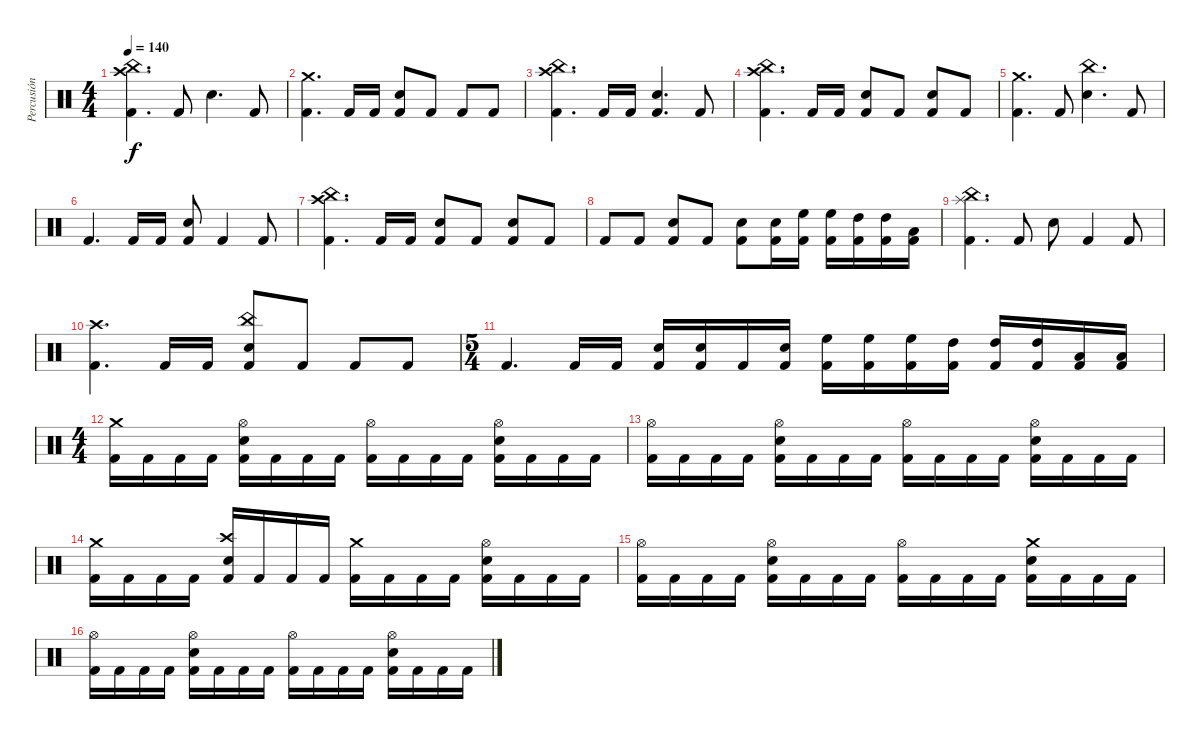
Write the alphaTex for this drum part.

\track ("Percusión" "Percusión") {instrument percussion}
\staff {score}
\articulation defaults
\ts (4 4)
\tempo 140
\clef neutral
\ks c
("Kick (hit) 2" "Crash high (hit)" "China (hit)").4{d dy f} "Kick (hit) 2".8 "Electric Snare (hit)".4{d} "Kick (hit) 2".8 |
("Kick (hit) 2" "Crash medium (hit)").4{d} "Kick (hit) 2".16 "Kick (hit) 2".16 ("Kick (hit) 2" "Electric Snare (hit)").8 "Kick (hit) 2".8 "Kick (hit) 2".8 "Kick (hit) 2".8 |
("Kick (hit) 2" "China (hit)" "Crash high (hit)").4{d} "Kick (hit) 2".16 "Kick (hit) 2".16 ("Kick (hit) 2" "Electric Snare (hit)").4{d} "Kick (hit) 2".8 |
("Kick (hit) 2" "China (hit)" "Crash high (hit)").4{d} "Kick (hit) 2".16 "Kick (hit) 2".16 ("Kick (hit) 2" "Electric Snare (hit)").8 "Kick (hit) 2".8 ("Kick (hit) 2" "Electric Snare (hit)").8 "Kick (hit) 2".8 |
("Kick (hit) 2" "Crash medium (hit)").4{d} "Kick (hit) 2".8 ("Electric Snare (hit)" "China (hit)").4{d} "Kick (hit) 2".8 |
"Kick (hit) 2".4{d} "Kick (hit) 2".16 "Kick (hit) 2".16 ("Kick (hit) 2" "Electric Snare (hit)").8 "Kick (hit) 2".4 "Kick (hit) 2".8 |
("Kick (hit) 2" "Crash high (hit)" "China (hit)").4{d} "Kick (hit) 2".16 "Kick (hit) 2".16 ("Kick (hit) 2" "Electric Snare (hit)").8 "Kick (hit) 2".8 ("Kick (hit) 2" "Electric Snare (hit)").8 "Kick (hit) 2".8 |
"Kick (hit) 2".8 "Kick (hit) 2".8 ("Kick (hit) 2" "Electric Snare (hit)").8 "Kick (hit) 2".8 ("Kick (hit) 2" "Electric Snare (hit)").8 ("Kick (hit) 2" "Electric Snare (hit)").16 ("Kick (hit) 2" "High Floor Tom (hit)").16 ("Kick (hit) 2" "High Floor Tom (hit)").16 ("Kick (hit) 2" "High Tom (hit)").16 ("Kick (hit) 2" "High Tom (hit)").16 ("Kick (hit) 2" "Low Tom (hit)").16 |
("Kick (hit) 2" "Splash (hit)" "China (hit)").4{d} "Kick (hit) 2".8 "Electric Snare (hit)".8 "Kick (hit) 2".4 "Kick (hit) 2".8 |
("Kick (hit) 2" "Crash high (hit)").4{d} "Kick (hit) 2".16 "Kick (hit) 2".16 ("Kick (hit) 2" "Electric Snare (hit)" "China (hit)").8 "Kick (hit) 2".8 "Kick (hit) 2".8 "Kick (hit) 2".8 |
\ts (5 4)
"Kick (hit) 2".4{d} "Kick (hit) 2".16 "Kick (hit) 2".16 ("Kick (hit) 2" "Electric Snare (hit)").16 ("Kick (hit) 2" "Electric Snare (hit)").16 "Kick (hit) 2".16 ("Kick (hit) 2" "Electric Snare (hit)").16 ("Kick (hit) 2" "High Floor Tom (hit)").16 ("Kick (hit) 2" "High Floor Tom (hit)").16 ("Kick (hit) 2" "High Floor Tom (hit)").16 ("Kick (hit) 2" "High Tom (hit)").16 ("Kick (hit) 2" "High Tom (hit)").16 ("Kick (hit) 2" "High Tom (hit)").16 ("Kick (hit) 2" "Low Tom (hit)").16 ("Kick (hit) 2" "Low Tom (hit)").16 |
\ts (4 4)
("Kick (hit) 2" "Crash medium (hit)").16 "Kick (hit) 2".16 "Kick (hit) 2".16 "Kick (hit) 2".16 ("Kick (hit) 2" "Electric Snare (hit)" "Hi-Hat (open)").16 "Kick (hit) 2".16 "Kick (hit) 2".16 "Kick (hit) 2".16 ("Kick (hit) 2" "Hi-Hat (open)").16 "Kick (hit) 2".16 "Kick (hit) 2".16 "Kick (hit) 2".16 ("Kick (hit) 2" "Electric Snare (hit)" "Hi-Hat (open)").16 "Kick (hit) 2".16 "Kick (hit) 2".16 "Kick (hit) 2".16 |
("Kick (hit) 2" "Hi-Hat (open)").16 "Kick (hit) 2".16 "Kick (hit) 2".16 "Kick (hit) 2".16 ("Kick (hit) 2" "Electric Snare (hit)" "Hi-Hat (open)").16 "Kick (hit) 2".16 "Kick (hit) 2".16 "Kick (hit) 2".16 ("Kick (hit) 2" "Hi-Hat (open)").16 "Kick (hit) 2".16 "Kick (hit) 2".16 "Kick (hit) 2".16 ("Kick (hit) 2" "Electric Snare (hit)" "Hi-Hat (open)").16 "Kick (hit) 2".16 "Kick (hit) 2".16 "Kick (hit) 2".16 |
("Kick (hit) 2" "Crash medium (hit)").16 "Kick (hit) 2".16 "Kick (hit) 2".16 "Kick (hit) 2".16 ("Kick (hit) 2" "Electric Snare (hit)" "Crash high (hit)").16 "Kick (hit) 2".16 "Kick (hit) 2".16 "Kick (hit) 2".16 ("Kick (hit) 2" "Crash medium (hit)").16 "Kick (hit) 2".16 "Kick (hit) 2".16 "Kick (hit) 2".16 ("Kick (hit) 2" "Electric Snare (hit)" "Hi-Hat (open)").16 "Kick (hit) 2".16 "Kick (hit) 2".16 "Kick (hit) 2".16 |
("Kick (hit) 2" "Hi-Hat (open)").16 "Kick (hit) 2".16 "Kick (hit) 2".16 "Kick (hit) 2".16 ("Kick (hit) 2" "Electric Snare (hit)" "Hi-Hat (open)").16 "Kick (hit) 2".16 "Kick (hit) 2".16 "Kick (hit) 2".16 ("Kick (hit) 2" "Hi-Hat (open)").16 "Kick (hit) 2".16 "Kick (hit) 2".16 "Kick (hit) 2".16 ("Kick (hit) 2" "Electric Snare (hit)" "Crash medium (hit)").16 "Kick (hit) 2".16 "Kick (hit) 2".16 "Kick (hit) 2".16 |
("Kick (hit) 2" "Hi-Hat (open)").16 "Kick (hit) 2".16 "Kick (hit) 2".16 "Kick (hit) 2".16 ("Kick (hit) 2" "Electric Snare (hit)" "Hi-Hat (open)").16 "Kick (hit) 2".16 "Kick (hit) 2".16 "Kick (hit) 2".16 ("Kick (hit) 2" "Hi-Hat (open)").16 "Kick (hit) 2".16 "Kick (hit) 2".16 "Kick (hit) 2".16 ("Kick (hit) 2" "Electric Snare (hit)" "Hi-Hat (open)").16 "Kick (hit) 2".16 "Kick (hit) 2".16 "Kick (hit) 2".16
